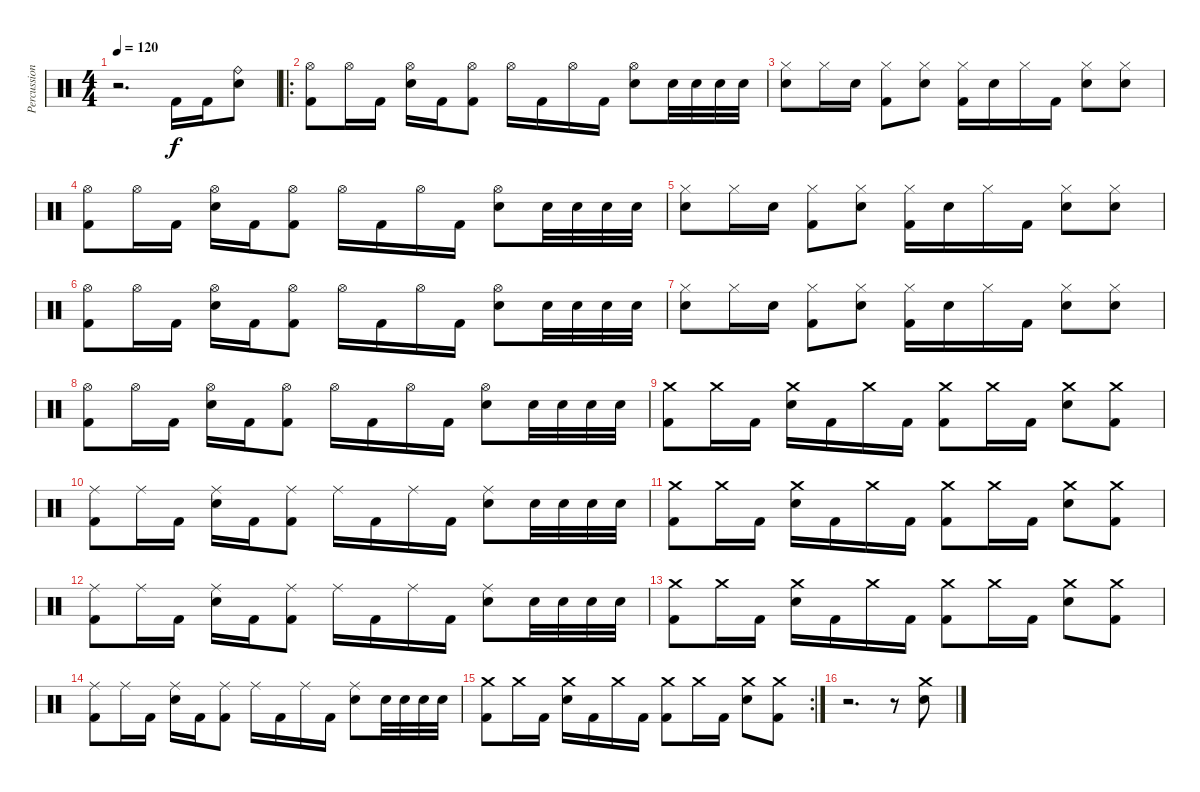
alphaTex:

\track ("Percussions" "Percussion") {instrument percussion}
\staff {score}
\articulation defaults
\ts (4 4)
\tempo 120
\clef neutral
\ks c
r.2{d dy f} "Kick (hit) 2".16 "Kick (hit) 2".16 ("Electric Snare (hit)" "Ride (bell)").8 |
\ro
("Hi-Hat (open)" "Kick (hit) 2").8 "Hi-Hat (open)".16 "Kick (hit) 2".16 ("Electric Snare (hit)" "Hi-Hat (open)").16 "Kick (hit) 2".16 ("Hi-Hat (open)" "Kick (hit) 2").8 "Hi-Hat (open)".16 "Kick (hit) 2".16 "Hi-Hat (open)".16 "Kick (hit) 2".16 ("Electric Snare (hit)" "Hi-Hat (open)").8 "Electric Snare (hit)".32 "Electric Snare (hit)".32 "Electric Snare (hit)".32 "Electric Snare (hit)".32 |
("Electric Snare (hit)" "Hi-Hat (closed)").8 "Hi-Hat (closed)".16 "Electric Snare (hit)".16 ("Hi-Hat (closed)" "Kick (hit) 2").8 ("Electric Snare (hit)" "Hi-Hat (closed)").8 ("Hi-Hat (closed)" "Kick (hit) 2").16 "Electric Snare (hit)".16 "Hi-Hat (closed)".16 "Kick (hit) 2".16 ("Electric Snare (hit)" "Hi-Hat (closed)").8 ("Electric Snare (hit)" "Hi-Hat (closed)").8 |
("Hi-Hat (open)" "Kick (hit) 2").8 "Hi-Hat (open)".16 "Kick (hit) 2".16 ("Electric Snare (hit)" "Hi-Hat (open)").16 "Kick (hit) 2".16 ("Hi-Hat (open)" "Kick (hit) 2").8 "Hi-Hat (open)".16 "Kick (hit) 2".16 "Hi-Hat (open)".16 "Kick (hit) 2".16 ("Electric Snare (hit)" "Hi-Hat (open)").8 "Electric Snare (hit)".32 "Electric Snare (hit)".32 "Electric Snare (hit)".32 "Electric Snare (hit)".32 |
("Electric Snare (hit)" "Hi-Hat (closed)").8 "Hi-Hat (closed)".16 "Electric Snare (hit)".16 ("Hi-Hat (closed)" "Kick (hit) 2").8 ("Electric Snare (hit)" "Hi-Hat (closed)").8 ("Hi-Hat (closed)" "Kick (hit) 2").16 "Electric Snare (hit)".16 "Hi-Hat (closed)".16 "Kick (hit) 2".16 ("Electric Snare (hit)" "Hi-Hat (closed)").8 ("Electric Snare (hit)" "Hi-Hat (closed)").8 |
("Hi-Hat (open)" "Kick (hit) 2").8 "Hi-Hat (open)".16 "Kick (hit) 2".16 ("Electric Snare (hit)" "Hi-Hat (open)").16 "Kick (hit) 2".16 ("Hi-Hat (open)" "Kick (hit) 2").8 "Hi-Hat (open)".16 "Kick (hit) 2".16 "Hi-Hat (open)".16 "Kick (hit) 2".16 ("Electric Snare (hit)" "Hi-Hat (open)").8 "Electric Snare (hit)".32 "Electric Snare (hit)".32 "Electric Snare (hit)".32 "Electric Snare (hit)".32 |
("Electric Snare (hit)" "Hi-Hat (closed)").8 "Hi-Hat (closed)".16 "Electric Snare (hit)".16 ("Hi-Hat (closed)" "Kick (hit) 2").8 ("Electric Snare (hit)" "Hi-Hat (closed)").8 ("Hi-Hat (closed)" "Kick (hit) 2").16 "Electric Snare (hit)".16 "Hi-Hat (closed)".16 "Kick (hit) 2".16 ("Electric Snare (hit)" "Hi-Hat (closed)").8 ("Electric Snare (hit)" "Hi-Hat (closed)").8 |
("Hi-Hat (open)" "Kick (hit) 2").8 "Hi-Hat (open)".16 "Kick (hit) 2".16 ("Electric Snare (hit)" "Hi-Hat (open)").16 "Kick (hit) 2".16 ("Hi-Hat (open)" "Kick (hit) 2").8 "Hi-Hat (open)".16 "Kick (hit) 2".16 "Hi-Hat (open)".16 "Kick (hit) 2".16 ("Electric Snare (hit)" "Hi-Hat (open)").8 "Electric Snare (hit)".32 "Electric Snare (hit)".32 "Electric Snare (hit)".32 "Electric Snare (hit)".32 |
("Crash medium (hit)" "Kick (hit) 2").8 "Crash medium (hit)".16 "Kick (hit) 2".16 ("Electric Snare (hit)" "Crash medium (hit)").16 "Kick (hit) 2".16 "Crash medium (hit)".16 "Kick (hit) 2".16 ("Crash medium (hit)" "Kick (hit) 2").8 "Crash medium (hit)".16 "Kick (hit) 2".16 ("Electric Snare (hit)" "Crash medium (hit)").8 ("Crash medium (hit)" "Kick (hit) 2").8 |
("Ride (middle)" "Kick (hit) 2").8 "Ride (middle)".16 "Kick (hit) 2".16 ("Electric Snare (hit)" "Ride (middle)").16 "Kick (hit) 2".16 ("Ride (middle)" "Kick (hit) 2").8 "Ride (middle)".16 "Kick (hit) 2".16 "Ride (middle)".16 "Kick (hit) 2".16 ("Electric Snare (hit)" "Ride (middle)").8 "Electric Snare (hit)".32 "Electric Snare (hit)".32 "Electric Snare (hit)".32 "Electric Snare (hit)".32 |
("Crash medium (hit)" "Kick (hit) 2").8 "Crash medium (hit)".16 "Kick (hit) 2".16 ("Electric Snare (hit)" "Crash medium (hit)").16 "Kick (hit) 2".16 "Crash medium (hit)".16 "Kick (hit) 2".16 ("Crash medium (hit)" "Kick (hit) 2").8 "Crash medium (hit)".16 "Kick (hit) 2".16 ("Electric Snare (hit)" "Crash medium (hit)").8 ("Crash medium (hit)" "Kick (hit) 2").8 |
("Ride (middle)" "Kick (hit) 2").8 "Ride (middle)".16 "Kick (hit) 2".16 ("Electric Snare (hit)" "Ride (middle)").16 "Kick (hit) 2".16 ("Ride (middle)" "Kick (hit) 2").8 "Ride (middle)".16 "Kick (hit) 2".16 "Ride (middle)".16 "Kick (hit) 2".16 ("Electric Snare (hit)" "Ride (middle)").8 "Electric Snare (hit)".32 "Electric Snare (hit)".32 "Electric Snare (hit)".32 "Electric Snare (hit)".32 |
("Crash medium (hit)" "Kick (hit) 2").8 "Crash medium (hit)".16 "Kick (hit) 2".16 ("Electric Snare (hit)" "Crash medium (hit)").16 "Kick (hit) 2".16 "Crash medium (hit)".16 "Kick (hit) 2".16 ("Crash medium (hit)" "Kick (hit) 2").8 "Crash medium (hit)".16 "Kick (hit) 2".16 ("Electric Snare (hit)" "Crash medium (hit)").8 ("Crash medium (hit)" "Kick (hit) 2").8 |
("Ride (middle)" "Kick (hit) 2").8 "Ride (middle)".16 "Kick (hit) 2".16 ("Electric Snare (hit)" "Ride (middle)").16 "Kick (hit) 2".16 ("Ride (middle)" "Kick (hit) 2").8 "Ride (middle)".16 "Kick (hit) 2".16 "Ride (middle)".16 "Kick (hit) 2".16 ("Electric Snare (hit)" "Ride (middle)").8 "Electric Snare (hit)".32 "Electric Snare (hit)".32 "Electric Snare (hit)".32 "Electric Snare (hit)".32 |
\rc 2
("Crash medium (hit)" "Kick (hit) 2").8 "Crash medium (hit)".16 "Kick (hit) 2".16 ("Electric Snare (hit)" "Crash medium (hit)").16 "Kick (hit) 2".16 "Crash medium (hit)".16 "Kick (hit) 2".16 ("Crash medium (hit)" "Kick (hit) 2").8 "Crash medium (hit)".16 "Kick (hit) 2".16 ("Electric Snare (hit)" "Crash medium (hit)").8 ("Crash medium (hit)" "Kick (hit) 2").8 |
r.2{d} r.8 ("Electric Snare (hit)" "Crash medium (hit)").8
